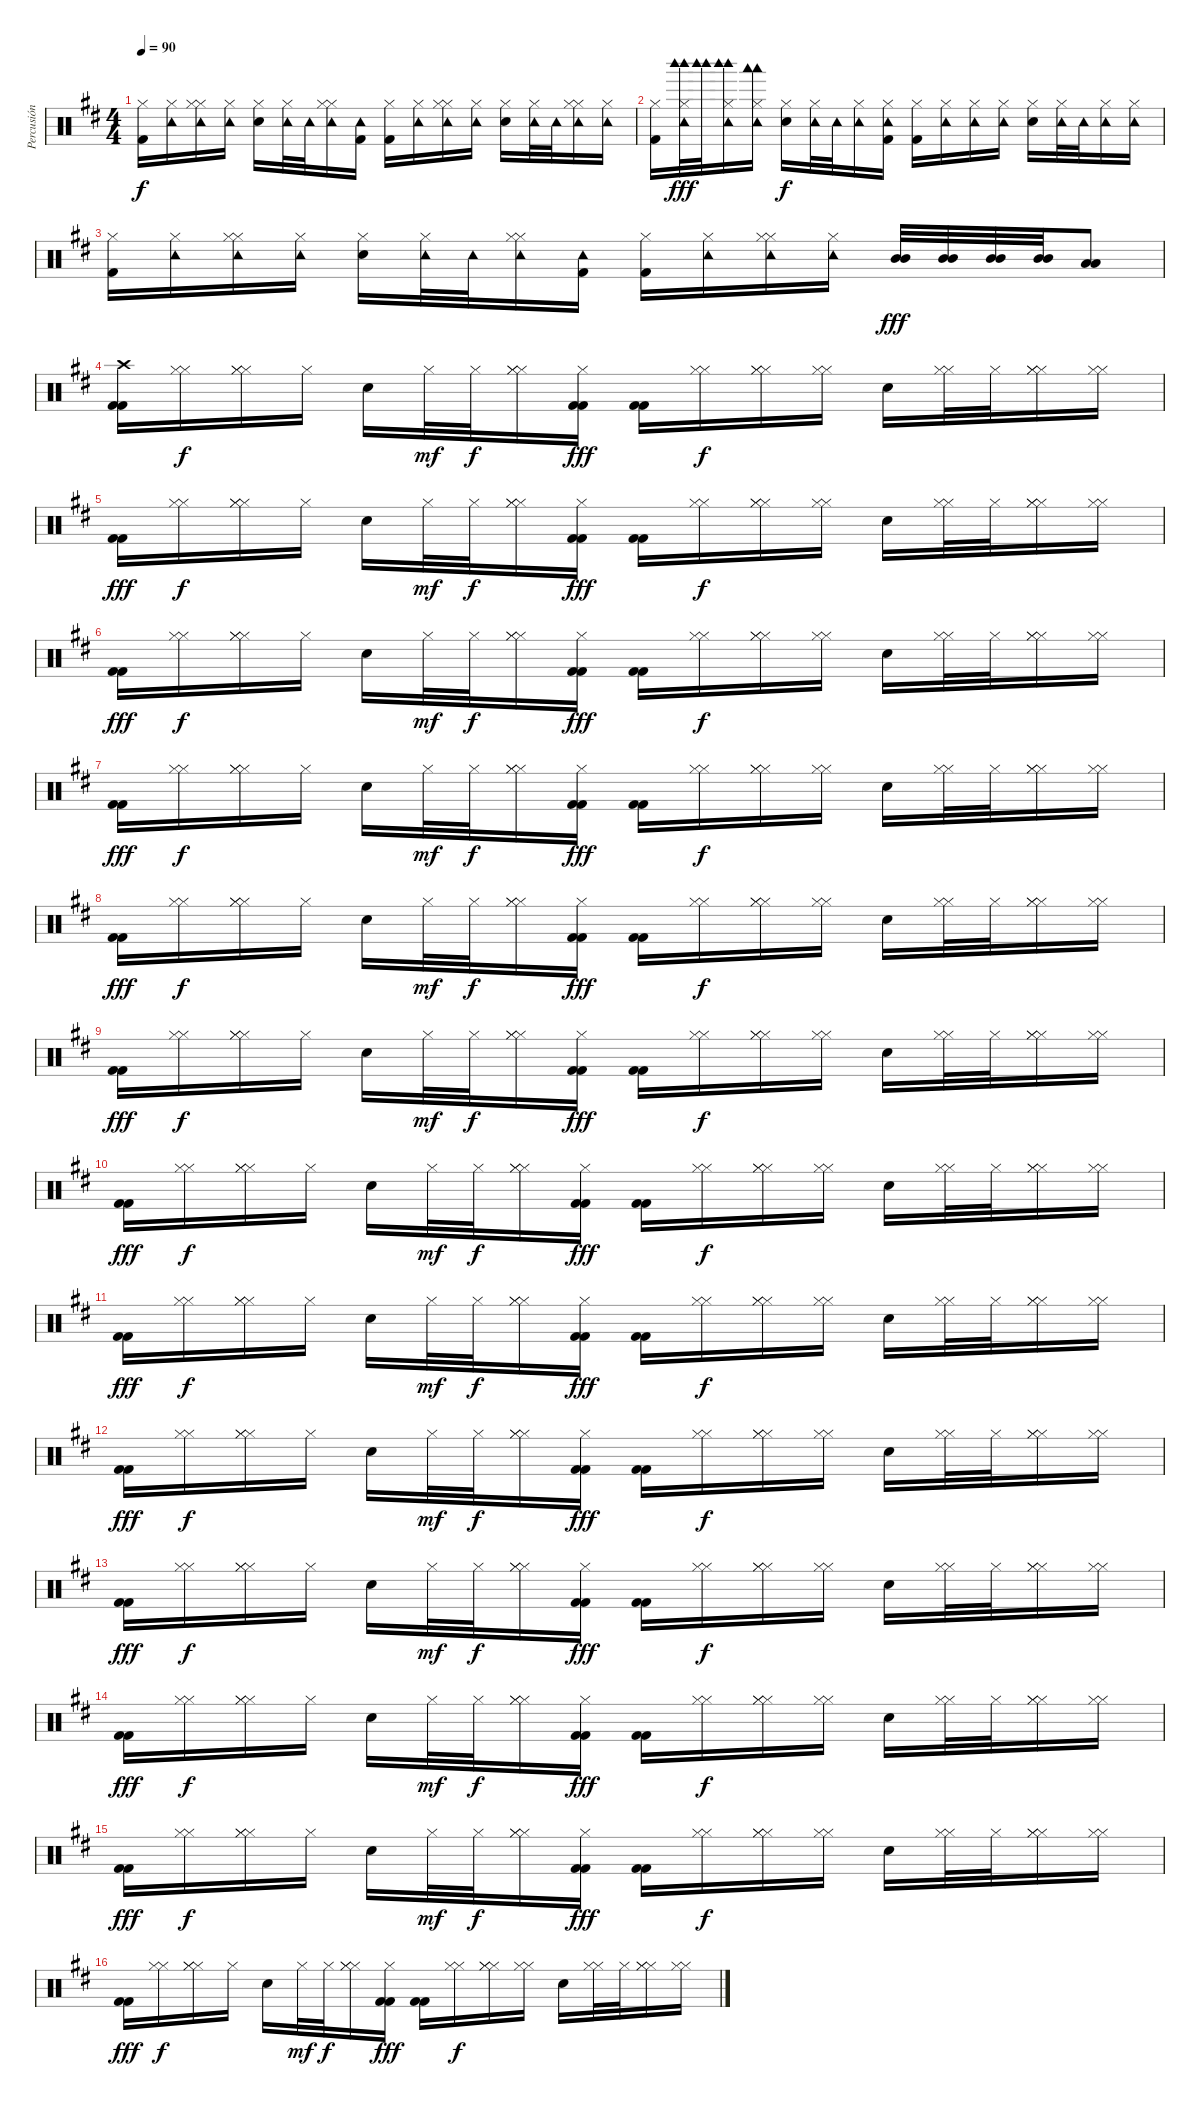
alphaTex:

\track ("Percusión" "Percusión") {instrument percussion}
\staff
\articulation defaults
\ts (4 4)
\tempo 90
\clef neutral
\ks bminor
("Kick (hit) 2" "Hi-Hat (closed)").16{dy f} ("Tambourine (hit)" "Hi-Hat (closed)").16 ("Hi-Hat (closed)" "Tambourine (hit)" "Hi-Hat (closed)").16 ("Tambourine (hit)" "Hi-Hat (closed)").16 ("Electric Snare (hit)" "Hi-Hat (closed)").16 ("Tambourine (hit)" "Hi-Hat (closed)").32 "Tambourine (hit)".32 ("Hi-Hat (closed)" "Tambourine (hit)" "Hi-Hat (closed)").16 ("Kick (hit) 2" "Tambourine (hit)").16 ("Kick (hit) 2" "Hi-Hat (closed)").16 ("Tambourine (hit)" "Hi-Hat (closed)").16 ("Hi-Hat (closed)" "Tambourine (hit)" "Hi-Hat (closed)").16 ("Tambourine (hit)" "Hi-Hat (closed)").16 ("Electric Snare (hit)" "Hi-Hat (closed)").16 ("Tambourine (hit)" "Hi-Hat (closed)").32 "Tambourine (hit)".32 ("Hi-Hat (closed)" "Tambourine (hit)" "Hi-Hat (closed)").16 ("Tambourine (hit)" "Hi-Hat (closed)").16 |
("Kick (hit) 2" "Hi-Hat (closed)").16 ("Hi-Hat (closed)" "Tambourine (hit)" "Woodblock high (hit)" "Woodblock high (hit)").32{dy fff} ("Woodblock high (hit)" "Woodblock high (hit)").32 ("Hi-Hat (closed)" "Tambourine (hit)" "Woodblock high (hit)" "Woodblock high (hit)").16 ("Hi-Hat (closed)" "Tambourine (hit)" "Woodblock low (hit)" "Woodblock low (hit)").16 ("Electric Snare (hit)" "Hi-Hat (closed)").16{dy f} ("Hi-Hat (closed)" "Tambourine (hit)").32 "Tambourine (hit)".32 ("Hi-Hat (closed)" "Tambourine (hit)").16 ("Kick (hit) 2" "Hi-Hat (closed)" "Tambourine (hit)").16 ("Kick (hit) 2" "Hi-Hat (closed)").16 ("Hi-Hat (closed)" "Tambourine (hit)").16 ("Hi-Hat (closed)" "Tambourine (hit)").16 ("Hi-Hat (closed)" "Tambourine (hit)").16 ("Electric Snare (hit)" "Hi-Hat (closed)").16 ("Hi-Hat (closed)" "Tambourine (hit)").32 "Tambourine (hit)".32 ("Hi-Hat (closed)" "Tambourine (hit)").16 ("Hi-Hat (closed)" "Tambourine (hit)").16 |
("Kick (hit) 2" "Hi-Hat (closed)").16 ("Tambourine (hit)" "Hi-Hat (closed)").16 ("Hi-Hat (closed)" "Tambourine (hit)" "Hi-Hat (closed)").16 ("Tambourine (hit)" "Hi-Hat (closed)").16 ("Electric Snare (hit)" "Hi-Hat (closed)").16 ("Tambourine (hit)" "Hi-Hat (closed)").32 "Tambourine (hit)".32 ("Hi-Hat (closed)" "Tambourine (hit)" "Hi-Hat (closed)").16 ("Kick (hit) 2" "Tambourine (hit)").16 ("Kick (hit) 2" "Hi-Hat (closed)").16 ("Tambourine (hit)" "Hi-Hat (closed)").16 ("Hi-Hat (closed)" "Tambourine (hit)" "Hi-Hat (closed)").16 ("Tambourine (hit)" "Hi-Hat (closed)").16 ("Mid Tom (hit)" "Mid Tom (hit)").32{dy fff} ("Mid Tom (hit)" "Mid Tom (hit)").32 ("Mid Tom (hit)" "Mid Tom (hit)").32 ("Mid Tom (hit)" "Mid Tom (hit)").32 ("Low Tom (hit)" "Low Tom (hit)").8 |
("Kick (hit) 2" "Kick (hit) 2" "Crash high (hit)").16 ("Hi-Hat (closed)" "Hi-Hat (closed)").16{dy f} ("Hi-Hat (closed)" "Hi-Hat (closed)" "Hi-Hat (closed)").16 "Hi-Hat (closed)".16 "Electric Snare (hit)".16 "Hi-Hat (closed)".32{dy mf} "Hi-Hat (closed)".32{dy f} ("Hi-Hat (closed)" "Hi-Hat (closed)" "Hi-Hat (closed)").16 ("Kick (hit) 2" "Kick (hit) 2" "Hi-Hat (closed)").16{dy fff} ("Kick (hit) 2" "Kick (hit) 2").16 ("Hi-Hat (closed)" "Hi-Hat (closed)").16{dy f} ("Hi-Hat (closed)" "Hi-Hat (closed)" "Hi-Hat (closed)").16 ("Hi-Hat (closed)" "Hi-Hat (closed)").16 "Electric Snare (hit)".16 ("Hi-Hat (closed)" "Hi-Hat (closed)").32 "Hi-Hat (closed)".32 ("Hi-Hat (closed)" "Hi-Hat (closed)" "Hi-Hat (closed)").16 ("Hi-Hat (closed)" "Hi-Hat (closed)").16 |
("Kick (hit) 2" "Kick (hit) 2").16{dy fff} ("Hi-Hat (closed)" "Hi-Hat (closed)").16{dy f} ("Hi-Hat (closed)" "Hi-Hat (closed)" "Hi-Hat (closed)").16 "Hi-Hat (closed)".16 "Electric Snare (hit)".16 "Hi-Hat (closed)".32{dy mf} "Hi-Hat (closed)".32{dy f} ("Hi-Hat (closed)" "Hi-Hat (closed)" "Hi-Hat (closed)").16 ("Kick (hit) 2" "Kick (hit) 2" "Hi-Hat (closed)").16{dy fff} ("Kick (hit) 2" "Kick (hit) 2").16 ("Hi-Hat (closed)" "Hi-Hat (closed)").16{dy f} ("Hi-Hat (closed)" "Hi-Hat (closed)" "Hi-Hat (closed)").16 ("Hi-Hat (closed)" "Hi-Hat (closed)").16 "Electric Snare (hit)".16 ("Hi-Hat (closed)" "Hi-Hat (closed)").32 "Hi-Hat (closed)".32 ("Hi-Hat (closed)" "Hi-Hat (closed)" "Hi-Hat (closed)").16 ("Hi-Hat (closed)" "Hi-Hat (closed)").16 |
("Kick (hit) 2" "Kick (hit) 2").16{dy fff} ("Hi-Hat (closed)" "Hi-Hat (closed)").16{dy f} ("Hi-Hat (closed)" "Hi-Hat (closed)" "Hi-Hat (closed)").16 "Hi-Hat (closed)".16 "Electric Snare (hit)".16 "Hi-Hat (closed)".32{dy mf} "Hi-Hat (closed)".32{dy f} ("Hi-Hat (closed)" "Hi-Hat (closed)" "Hi-Hat (closed)").16 ("Kick (hit) 2" "Kick (hit) 2" "Hi-Hat (closed)").16{dy fff} ("Kick (hit) 2" "Kick (hit) 2").16 ("Hi-Hat (closed)" "Hi-Hat (closed)").16{dy f} ("Hi-Hat (closed)" "Hi-Hat (closed)" "Hi-Hat (closed)").16 ("Hi-Hat (closed)" "Hi-Hat (closed)").16 "Electric Snare (hit)".16 ("Hi-Hat (closed)" "Hi-Hat (closed)").32 "Hi-Hat (closed)".32 ("Hi-Hat (closed)" "Hi-Hat (closed)" "Hi-Hat (closed)").16 ("Hi-Hat (closed)" "Hi-Hat (closed)").16 |
("Kick (hit) 2" "Kick (hit) 2").16{dy fff} ("Hi-Hat (closed)" "Hi-Hat (closed)").16{dy f} ("Hi-Hat (closed)" "Hi-Hat (closed)" "Hi-Hat (closed)").16 "Hi-Hat (closed)".16 "Electric Snare (hit)".16 "Hi-Hat (closed)".32{dy mf} "Hi-Hat (closed)".32{dy f} ("Hi-Hat (closed)" "Hi-Hat (closed)" "Hi-Hat (closed)").16 ("Kick (hit) 2" "Kick (hit) 2" "Hi-Hat (closed)").16{dy fff} ("Kick (hit) 2" "Kick (hit) 2").16 ("Hi-Hat (closed)" "Hi-Hat (closed)").16{dy f} ("Hi-Hat (closed)" "Hi-Hat (closed)" "Hi-Hat (closed)").16 ("Hi-Hat (closed)" "Hi-Hat (closed)").16 "Electric Snare (hit)".16 ("Hi-Hat (closed)" "Hi-Hat (closed)").32 "Hi-Hat (closed)".32 ("Hi-Hat (closed)" "Hi-Hat (closed)" "Hi-Hat (closed)").16 ("Hi-Hat (closed)" "Hi-Hat (closed)").16 |
("Kick (hit) 2" "Kick (hit) 2").16{dy fff} ("Hi-Hat (closed)" "Hi-Hat (closed)").16{dy f} ("Hi-Hat (closed)" "Hi-Hat (closed)" "Hi-Hat (closed)").16 "Hi-Hat (closed)".16 "Electric Snare (hit)".16 "Hi-Hat (closed)".32{dy mf} "Hi-Hat (closed)".32{dy f} ("Hi-Hat (closed)" "Hi-Hat (closed)" "Hi-Hat (closed)").16 ("Kick (hit) 2" "Kick (hit) 2" "Hi-Hat (closed)").16{dy fff} ("Kick (hit) 2" "Kick (hit) 2").16 ("Hi-Hat (closed)" "Hi-Hat (closed)").16{dy f} ("Hi-Hat (closed)" "Hi-Hat (closed)" "Hi-Hat (closed)").16 ("Hi-Hat (closed)" "Hi-Hat (closed)").16 "Electric Snare (hit)".16 ("Hi-Hat (closed)" "Hi-Hat (closed)").32 "Hi-Hat (closed)".32 ("Hi-Hat (closed)" "Hi-Hat (closed)" "Hi-Hat (closed)").16 ("Hi-Hat (closed)" "Hi-Hat (closed)").16 |
("Kick (hit) 2" "Kick (hit) 2").16{dy fff} ("Hi-Hat (closed)" "Hi-Hat (closed)").16{dy f} ("Hi-Hat (closed)" "Hi-Hat (closed)" "Hi-Hat (closed)").16 "Hi-Hat (closed)".16 "Electric Snare (hit)".16 "Hi-Hat (closed)".32{dy mf} "Hi-Hat (closed)".32{dy f} ("Hi-Hat (closed)" "Hi-Hat (closed)" "Hi-Hat (closed)").16 ("Kick (hit) 2" "Kick (hit) 2" "Hi-Hat (closed)").16{dy fff} ("Kick (hit) 2" "Kick (hit) 2").16 ("Hi-Hat (closed)" "Hi-Hat (closed)").16{dy f} ("Hi-Hat (closed)" "Hi-Hat (closed)" "Hi-Hat (closed)").16 ("Hi-Hat (closed)" "Hi-Hat (closed)").16 "Electric Snare (hit)".16 ("Hi-Hat (closed)" "Hi-Hat (closed)").32 "Hi-Hat (closed)".32 ("Hi-Hat (closed)" "Hi-Hat (closed)" "Hi-Hat (closed)").16 ("Hi-Hat (closed)" "Hi-Hat (closed)").16 |
("Kick (hit) 2" "Kick (hit) 2").16{dy fff} ("Hi-Hat (closed)" "Hi-Hat (closed)").16{dy f} ("Hi-Hat (closed)" "Hi-Hat (closed)" "Hi-Hat (closed)").16 "Hi-Hat (closed)".16 "Electric Snare (hit)".16 "Hi-Hat (closed)".32{dy mf} "Hi-Hat (closed)".32{dy f} ("Hi-Hat (closed)" "Hi-Hat (closed)" "Hi-Hat (closed)").16 ("Kick (hit) 2" "Kick (hit) 2" "Hi-Hat (closed)").16{dy fff} ("Kick (hit) 2" "Kick (hit) 2").16 ("Hi-Hat (closed)" "Hi-Hat (closed)").16{dy f} ("Hi-Hat (closed)" "Hi-Hat (closed)" "Hi-Hat (closed)").16 ("Hi-Hat (closed)" "Hi-Hat (closed)").16 "Electric Snare (hit)".16 ("Hi-Hat (closed)" "Hi-Hat (closed)").32 "Hi-Hat (closed)".32 ("Hi-Hat (closed)" "Hi-Hat (closed)" "Hi-Hat (closed)").16 ("Hi-Hat (closed)" "Hi-Hat (closed)").16 |
("Kick (hit) 2" "Kick (hit) 2").16{dy fff} ("Hi-Hat (closed)" "Hi-Hat (closed)").16{dy f} ("Hi-Hat (closed)" "Hi-Hat (closed)" "Hi-Hat (closed)").16 "Hi-Hat (closed)".16 "Electric Snare (hit)".16 "Hi-Hat (closed)".32{dy mf} "Hi-Hat (closed)".32{dy f} ("Hi-Hat (closed)" "Hi-Hat (closed)" "Hi-Hat (closed)").16 ("Kick (hit) 2" "Kick (hit) 2" "Hi-Hat (closed)").16{dy fff} ("Kick (hit) 2" "Kick (hit) 2").16 ("Hi-Hat (closed)" "Hi-Hat (closed)").16{dy f} ("Hi-Hat (closed)" "Hi-Hat (closed)" "Hi-Hat (closed)").16 ("Hi-Hat (closed)" "Hi-Hat (closed)").16 "Electric Snare (hit)".16 ("Hi-Hat (closed)" "Hi-Hat (closed)").32 "Hi-Hat (closed)".32 ("Hi-Hat (closed)" "Hi-Hat (closed)" "Hi-Hat (closed)").16 ("Hi-Hat (closed)" "Hi-Hat (closed)").16 |
("Kick (hit) 2" "Kick (hit) 2").16{dy fff} ("Hi-Hat (closed)" "Hi-Hat (closed)").16{dy f} ("Hi-Hat (closed)" "Hi-Hat (closed)" "Hi-Hat (closed)").16 "Hi-Hat (closed)".16 "Electric Snare (hit)".16 "Hi-Hat (closed)".32{dy mf} "Hi-Hat (closed)".32{dy f} ("Hi-Hat (closed)" "Hi-Hat (closed)" "Hi-Hat (closed)").16 ("Kick (hit) 2" "Kick (hit) 2" "Hi-Hat (closed)").16{dy fff} ("Kick (hit) 2" "Kick (hit) 2").16 ("Hi-Hat (closed)" "Hi-Hat (closed)").16{dy f} ("Hi-Hat (closed)" "Hi-Hat (closed)" "Hi-Hat (closed)").16 ("Hi-Hat (closed)" "Hi-Hat (closed)").16 "Electric Snare (hit)".16 ("Hi-Hat (closed)" "Hi-Hat (closed)").32 "Hi-Hat (closed)".32 ("Hi-Hat (closed)" "Hi-Hat (closed)" "Hi-Hat (closed)").16 ("Hi-Hat (closed)" "Hi-Hat (closed)").16 |
("Kick (hit) 2" "Kick (hit) 2").16{dy fff} ("Hi-Hat (closed)" "Hi-Hat (closed)").16{dy f} ("Hi-Hat (closed)" "Hi-Hat (closed)" "Hi-Hat (closed)").16 "Hi-Hat (closed)".16 "Electric Snare (hit)".16 "Hi-Hat (closed)".32{dy mf} "Hi-Hat (closed)".32{dy f} ("Hi-Hat (closed)" "Hi-Hat (closed)" "Hi-Hat (closed)").16 ("Kick (hit) 2" "Kick (hit) 2" "Hi-Hat (closed)").16{dy fff} ("Kick (hit) 2" "Kick (hit) 2").16 ("Hi-Hat (closed)" "Hi-Hat (closed)").16{dy f} ("Hi-Hat (closed)" "Hi-Hat (closed)" "Hi-Hat (closed)").16 ("Hi-Hat (closed)" "Hi-Hat (closed)").16 "Electric Snare (hit)".16 ("Hi-Hat (closed)" "Hi-Hat (closed)").32 "Hi-Hat (closed)".32 ("Hi-Hat (closed)" "Hi-Hat (closed)" "Hi-Hat (closed)").16 ("Hi-Hat (closed)" "Hi-Hat (closed)").16 |
("Kick (hit) 2" "Kick (hit) 2").16{dy fff} ("Hi-Hat (closed)" "Hi-Hat (closed)").16{dy f} ("Hi-Hat (closed)" "Hi-Hat (closed)" "Hi-Hat (closed)").16 "Hi-Hat (closed)".16 "Electric Snare (hit)".16 "Hi-Hat (closed)".32{dy mf} "Hi-Hat (closed)".32{dy f} ("Hi-Hat (closed)" "Hi-Hat (closed)" "Hi-Hat (closed)").16 ("Kick (hit) 2" "Kick (hit) 2" "Hi-Hat (closed)").16{dy fff} ("Kick (hit) 2" "Kick (hit) 2").16 ("Hi-Hat (closed)" "Hi-Hat (closed)").16{dy f} ("Hi-Hat (closed)" "Hi-Hat (closed)" "Hi-Hat (closed)").16 ("Hi-Hat (closed)" "Hi-Hat (closed)").16 "Electric Snare (hit)".16 ("Hi-Hat (closed)" "Hi-Hat (closed)").32 "Hi-Hat (closed)".32 ("Hi-Hat (closed)" "Hi-Hat (closed)" "Hi-Hat (closed)").16 ("Hi-Hat (closed)" "Hi-Hat (closed)").16 |
("Kick (hit) 2" "Kick (hit) 2").16{dy fff} ("Hi-Hat (closed)" "Hi-Hat (closed)").16{dy f} ("Hi-Hat (closed)" "Hi-Hat (closed)" "Hi-Hat (closed)").16 "Hi-Hat (closed)".16 "Electric Snare (hit)".16 "Hi-Hat (closed)".32{dy mf} "Hi-Hat (closed)".32{dy f} ("Hi-Hat (closed)" "Hi-Hat (closed)" "Hi-Hat (closed)").16 ("Kick (hit) 2" "Kick (hit) 2" "Hi-Hat (closed)").16{dy fff} ("Kick (hit) 2" "Kick (hit) 2").16 ("Hi-Hat (closed)" "Hi-Hat (closed)").16{dy f} ("Hi-Hat (closed)" "Hi-Hat (closed)" "Hi-Hat (closed)").16 ("Hi-Hat (closed)" "Hi-Hat (closed)").16 "Electric Snare (hit)".16 ("Hi-Hat (closed)" "Hi-Hat (closed)").32 "Hi-Hat (closed)".32 ("Hi-Hat (closed)" "Hi-Hat (closed)" "Hi-Hat (closed)").16 ("Hi-Hat (closed)" "Hi-Hat (closed)").16 |
("Kick (hit) 2" "Kick (hit) 2").16{dy fff} ("Hi-Hat (closed)" "Hi-Hat (closed)").16{dy f} ("Hi-Hat (closed)" "Hi-Hat (closed)" "Hi-Hat (closed)").16 "Hi-Hat (closed)".16 "Electric Snare (hit)".16 "Hi-Hat (closed)".32{dy mf} "Hi-Hat (closed)".32{dy f} ("Hi-Hat (closed)" "Hi-Hat (closed)" "Hi-Hat (closed)").16 ("Kick (hit) 2" "Kick (hit) 2" "Hi-Hat (closed)").16{dy fff} ("Kick (hit) 2" "Kick (hit) 2").16 ("Hi-Hat (closed)" "Hi-Hat (closed)").16{dy f} ("Hi-Hat (closed)" "Hi-Hat (closed)" "Hi-Hat (closed)").16 ("Hi-Hat (closed)" "Hi-Hat (closed)").16 "Electric Snare (hit)".16 ("Hi-Hat (closed)" "Hi-Hat (closed)").32 "Hi-Hat (closed)".32 ("Hi-Hat (closed)" "Hi-Hat (closed)" "Hi-Hat (closed)").16 ("Hi-Hat (closed)" "Hi-Hat (closed)").16
